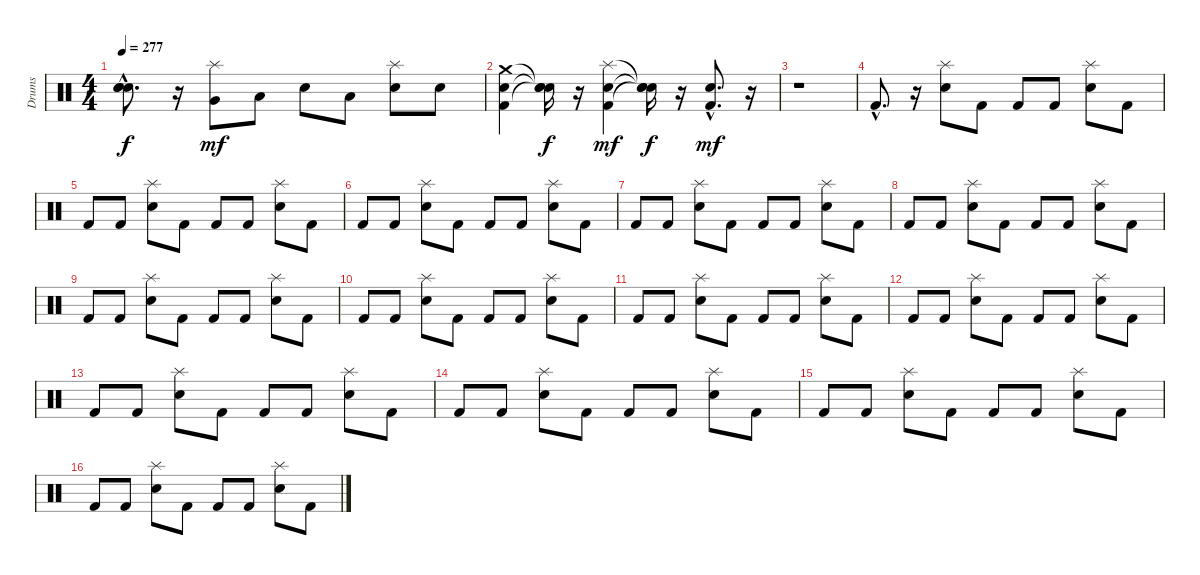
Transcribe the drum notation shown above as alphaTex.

\track ("Drums" "Drums") {instrument percussion}
\staff {score}
\articulation defaults
\ts (4 4)
\tempo 277
\clef neutral
\ks c
("Snare (hit)"{hac t} "Snare (hit)"{hac t} "Snare (hit)"{hac t}).8{d dy f} r.16 ("Very Low Tom (hit)" "Splash (hit)").8{dy mf} "Low Floor Tom (hit)".8 "Snare (hit) 2".8 "Low Floor Tom (hit)".8 ("Electric Snare (hit)" "Splash (hit)").8 "Snare (hit) 2".8 |
("Snare (hit) 2" "Kick (hit) 2" "Crash medium (hit)").4 ("Snare (hit)"{t} "Snare (hit)"{t} "Snare (hit)"{t}).16{dy f} r.16 ("Electric Snare (hit)" "Kick (hit) 2" "Splash (hit)").4{dy mf} ("Snare (hit)"{t} "Snare (hit)"{t} "Snare (hit)"{t}).16{dy f} r.16 ("Kick (hit) 2"{hac} "Electric Snare (hit)"{hac}).8{d dy mf} r.16 |
r.1 |
"Kick (hit) 2"{hac}.8{d} r.16 ("Electric Snare (hit)" "Splash (hit)").8 "Kick (hit) 2".8 "Kick (hit) 2".8 "Kick (hit) 2".8 ("Splash (hit)" "Electric Snare (hit)").8 "Kick (hit) 2".8 |
"Kick (hit) 2".8 "Kick (hit) 2".8 ("Splash (hit)" "Electric Snare (hit)").8 "Kick (hit) 2".8 "Kick (hit) 2".8 "Kick (hit) 2".8 ("Electric Snare (hit)" "Splash (hit)").8 "Kick (hit) 2".8 |
"Kick (hit) 2".8 "Kick (hit) 2".8 ("Splash (hit)" "Electric Snare (hit)").8 "Kick (hit) 2".8 "Kick (hit) 2".8 "Kick (hit) 2".8 ("Electric Snare (hit)" "Splash (hit)").8 "Kick (hit) 2".8 |
"Kick (hit) 2".8 "Kick (hit) 2".8 ("Electric Snare (hit)" "Splash (hit)").8 "Kick (hit) 2".8 "Kick (hit) 2".8 "Kick (hit) 2".8 ("Splash (hit)" "Electric Snare (hit)").8 "Kick (hit) 2".8 |
"Kick (hit) 2".8 "Kick (hit) 2".8 ("Splash (hit)" "Electric Snare (hit)").8 "Kick (hit) 2".8 "Kick (hit) 2".8 "Kick (hit) 2".8 ("Electric Snare (hit)" "Splash (hit)").8 "Kick (hit) 2".8 |
"Kick (hit) 2".8 "Kick (hit) 2".8 ("Electric Snare (hit)" "Splash (hit)").8 "Kick (hit) 2".8 "Kick (hit) 2".8 "Kick (hit) 2".8 ("Splash (hit)" "Electric Snare (hit)").8 "Kick (hit) 2".8 |
"Kick (hit) 2".8 "Kick (hit) 2".8 ("Electric Snare (hit)" "Splash (hit)").8 "Kick (hit) 2".8 "Kick (hit) 2".8 "Kick (hit) 2".8 ("Splash (hit)" "Electric Snare (hit)").8 "Kick (hit) 2".8 |
"Kick (hit) 2".8 "Kick (hit) 2".8 ("Electric Snare (hit)" "Splash (hit)").8 "Kick (hit) 2".8 "Kick (hit) 2".8 "Kick (hit) 2".8 ("Splash (hit)" "Electric Snare (hit)").8 "Kick (hit) 2".8 |
"Kick (hit) 2".8 "Kick (hit) 2".8 ("Splash (hit)" "Electric Snare (hit)").8 "Kick (hit) 2".8 "Kick (hit) 2".8 "Kick (hit) 2".8 ("Electric Snare (hit)" "Splash (hit)").8 "Kick (hit) 2".8 |
"Kick (hit) 2".8 "Kick (hit) 2".8 ("Electric Snare (hit)" "Splash (hit)").8 "Kick (hit) 2".8 "Kick (hit) 2".8 "Kick (hit) 2".8 ("Splash (hit)" "Electric Snare (hit)").8 "Kick (hit) 2".8 |
"Kick (hit) 2".8 "Kick (hit) 2".8 ("Electric Snare (hit)" "Splash (hit)").8 "Kick (hit) 2".8 "Kick (hit) 2".8 "Kick (hit) 2".8 ("Splash (hit)" "Electric Snare (hit)").8 "Kick (hit) 2".8 |
"Kick (hit) 2".8 "Kick (hit) 2".8 ("Splash (hit)" "Electric Snare (hit)").8 "Kick (hit) 2".8 "Kick (hit) 2".8 "Kick (hit) 2".8 ("Electric Snare (hit)" "Splash (hit)").8 "Kick (hit) 2".8 |
"Kick (hit) 2".8 "Kick (hit) 2".8 ("Electric Snare (hit)" "Splash (hit)").8 "Kick (hit) 2".8 "Kick (hit) 2".8 "Kick (hit) 2".8 ("Electric Snare (hit)" "Splash (hit)").8 "Kick (hit) 2".8
